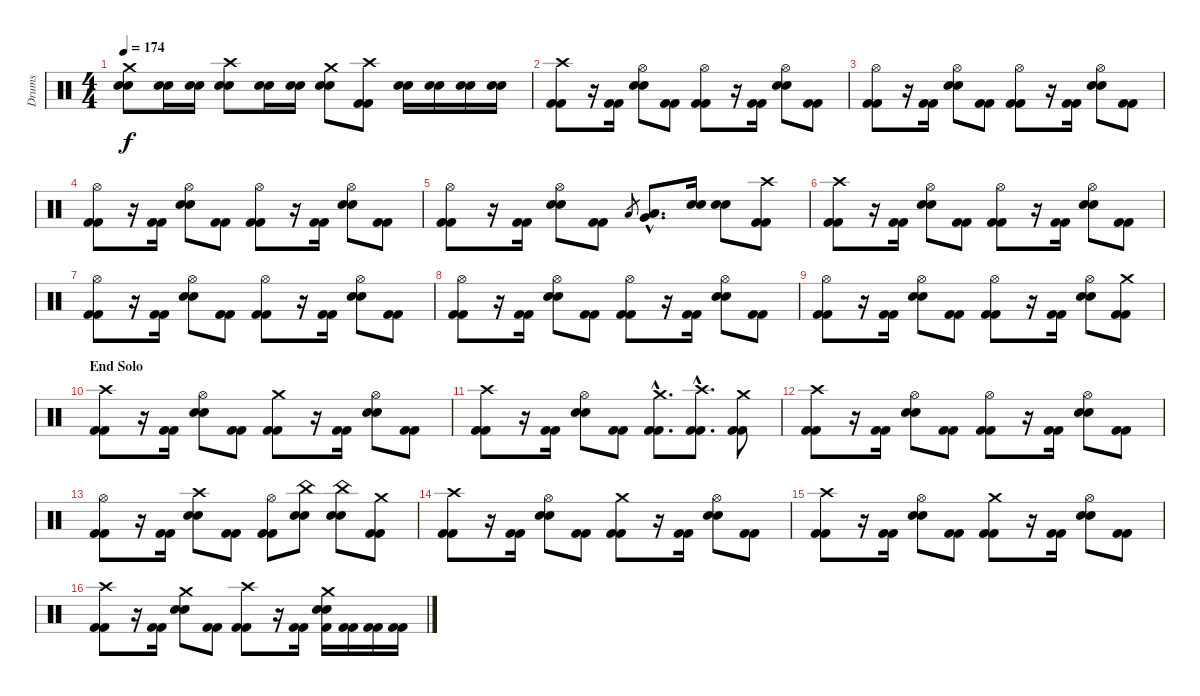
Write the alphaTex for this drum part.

\track ("Drums" "Drums") {instrument percussion}
\staff {score}
\articulation defaults
\ts (4 4)
\tempo 174
\clef neutral
\ks c
("Crash medium (hit)" "Snare (hit) 2" "Snare (hit) 2").8{dy f} ("Snare (hit) 2" "Snare (hit) 2").16 ("Snare (hit) 2" "Snare (hit) 2").16 ("Crash high (hit)" "Snare (hit) 2" "Snare (hit) 2").8 ("Snare (hit) 2" "Snare (hit) 2").16 ("Snare (hit) 2" "Snare (hit) 2").16 ("Crash medium (hit)" "Snare (hit) 2" "Snare (hit) 2").8 ("Crash high (hit)" "Kick (hit) 2" "Kick (hit) 2").8 ("Snare (hit) 2" "Snare (hit) 2").16 ("Snare (hit) 2" "Snare (hit) 2").16 ("Snare (hit) 2" "Snare (hit) 2").16 ("Snare (hit) 2" "Snare (hit) 2").16 |
("Crash high (hit)" "Kick (hit) 2" "Kick (hit) 2").8 r.16 ("Kick (hit) 2" "Kick (hit) 2").16 ("Hi-Hat (open)" "Snare (hit) 2" "Snare (hit) 2").8 ("Kick (hit) 2" "Kick (hit) 2").8 ("Hi-Hat (open)" "Kick (hit) 2" "Kick (hit) 2").8 r.16 ("Kick (hit) 2" "Kick (hit) 2").16 ("Hi-Hat (open)" "Snare (hit) 2" "Snare (hit) 2").8 ("Kick (hit) 2" "Kick (hit) 2").8 |
("Hi-Hat (open)" "Kick (hit) 2" "Kick (hit) 2").8 r.16 ("Kick (hit) 2" "Kick (hit) 2").16 ("Hi-Hat (open)" "Snare (hit) 2" "Snare (hit) 2").8 ("Kick (hit) 2" "Kick (hit) 2").8 ("Hi-Hat (open)" "Kick (hit) 2" "Kick (hit) 2").8 r.16 ("Kick (hit) 2" "Kick (hit) 2").16 ("Hi-Hat (open)" "Snare (hit) 2" "Snare (hit) 2").8 ("Kick (hit) 2" "Kick (hit) 2").8 |
("Hi-Hat (open)" "Kick (hit) 2" "Kick (hit) 2").8 r.16 ("Kick (hit) 2" "Kick (hit) 2").16 ("Hi-Hat (open)" "Snare (hit) 2" "Snare (hit) 2").8 ("Kick (hit) 2" "Kick (hit) 2").8 ("Hi-Hat (open)" "Kick (hit) 2" "Kick (hit) 2").8 r.16 ("Kick (hit) 2" "Kick (hit) 2").16 ("Hi-Hat (open)" "Snare (hit) 2" "Snare (hit) 2").8 ("Kick (hit) 2" "Kick (hit) 2").8 |
("Hi-Hat (open)" "Kick (hit) 2" "Kick (hit) 2").8 r.16 ("Kick (hit) 2" "Kick (hit) 2").16 ("Hi-Hat (open)" "Snare (hit) 2" "Snare (hit) 2").8 ("Kick (hit) 2" "Kick (hit) 2").8 "Low Tom (hit)".8{gr} ("Low Tom (hit)"{hac} "Very Low Tom (hit)"{hac}).8{d} ("Snare (hit) 2" "Snare (hit) 2").16 ("Snare (hit) 2" "Snare (hit) 2").8 ("Crash high (hit)" "Kick (hit) 2" "Kick (hit) 2").8 |
("Crash high (hit)" "Kick (hit) 2" "Kick (hit) 2").8 r.16 ("Kick (hit) 2" "Kick (hit) 2").16 ("Hi-Hat (open)" "Snare (hit) 2" "Snare (hit) 2").8 ("Kick (hit) 2" "Kick (hit) 2").8 ("Hi-Hat (open)" "Kick (hit) 2" "Kick (hit) 2").8 r.16 ("Kick (hit) 2" "Kick (hit) 2").16 ("Hi-Hat (open)" "Snare (hit) 2" "Snare (hit) 2").8 ("Kick (hit) 2" "Kick (hit) 2").8 |
("Hi-Hat (open)" "Kick (hit) 2" "Kick (hit) 2").8 r.16 ("Kick (hit) 2" "Kick (hit) 2").16 ("Hi-Hat (open)" "Snare (hit) 2" "Snare (hit) 2").8 ("Kick (hit) 2" "Kick (hit) 2").8 ("Hi-Hat (open)" "Kick (hit) 2" "Kick (hit) 2").8 r.16 ("Kick (hit) 2" "Kick (hit) 2").16 ("Hi-Hat (open)" "Snare (hit) 2" "Snare (hit) 2").8 ("Kick (hit) 2" "Kick (hit) 2").8 |
("Hi-Hat (open)" "Kick (hit) 2" "Kick (hit) 2").8 r.16 ("Kick (hit) 2" "Kick (hit) 2").16 ("Hi-Hat (open)" "Snare (hit) 2" "Snare (hit) 2").8 ("Kick (hit) 2" "Kick (hit) 2").8 ("Hi-Hat (open)" "Kick (hit) 2" "Kick (hit) 2").8 r.16 ("Kick (hit) 2" "Kick (hit) 2").16 ("Hi-Hat (open)" "Snare (hit) 2" "Snare (hit) 2").8 ("Kick (hit) 2" "Kick (hit) 2").8 |
("Hi-Hat (open)" "Kick (hit) 2" "Kick (hit) 2").8 r.16 ("Kick (hit) 2" "Kick (hit) 2").16 ("Hi-Hat (open)" "Snare (hit) 2" "Snare (hit) 2").8 ("Kick (hit) 2" "Kick (hit) 2").8 ("Hi-Hat (open)" "Kick (hit) 2" "Kick (hit) 2").8 r.16 ("Kick (hit) 2" "Kick (hit) 2").16 ("Hi-Hat (open)" "Snare (hit) 2" "Snare (hit) 2").8 ("Crash medium (hit)" "Kick (hit) 2" "Kick (hit) 2").8 |
\section ("" "End Solo")
("Crash high (hit)" "Kick (hit) 2" "Kick (hit) 2").8 r.16 ("Kick (hit) 2" "Kick (hit) 2").16 ("Hi-Hat (open)" "Snare (hit) 2" "Snare (hit) 2").8 ("Kick (hit) 2" "Kick (hit) 2").8 ("Crash medium (hit)" "Kick (hit) 2" "Kick (hit) 2").8 r.16 ("Kick (hit) 2" "Kick (hit) 2").16 ("Hi-Hat (open)" "Snare (hit) 2" "Snare (hit) 2").8 ("Kick (hit) 2" "Kick (hit) 2").8 |
("Crash high (hit)" "Kick (hit) 2" "Kick (hit) 2").8 r.16 ("Kick (hit) 2" "Kick (hit) 2").16 ("Hi-Hat (open)" "Snare (hit) 2" "Snare (hit) 2").8 ("Kick (hit) 2" "Kick (hit) 2").8 ("Crash medium (hit)"{hac} "Kick (hit) 2"{hac} "Kick (hit) 2"{hac}).8{d} ("Crash high (hit)"{hac} "Kick (hit) 2"{hac} "Kick (hit) 2"{hac}).8{d} ("Crash medium (hit)" "Kick (hit) 2" "Kick (hit) 2").8 |
("Crash high (hit)" "Kick (hit) 2" "Kick (hit) 2").8 r.16 ("Kick (hit) 2" "Kick (hit) 2").16 ("Hi-Hat (open)" "Snare (hit) 2" "Snare (hit) 2").8 ("Kick (hit) 2" "Kick (hit) 2").8 ("Hi-Hat (open)" "Kick (hit) 2" "Kick (hit) 2").8 r.16 ("Kick (hit) 2" "Kick (hit) 2").16 ("Hi-Hat (open)" "Snare (hit) 2" "Snare (hit) 2").8 ("Kick (hit) 2" "Kick (hit) 2").8 |
("Hi-Hat (open)" "Kick (hit) 2" "Kick (hit) 2").8 r.16 ("Kick (hit) 2" "Kick (hit) 2").16 ("Crash high (hit)" "Snare (hit) 2" "Snare (hit) 2").8 ("Kick (hit) 2" "Kick (hit) 2").8 ("Hi-Hat (open)" "Kick (hit) 2" "Kick (hit) 2").8 ("China (hit)" "Snare (hit) 2" "Snare (hit) 2").8 ("China (hit)" "Snare (hit) 2" "Snare (hit) 2").8 ("Crash medium (hit)" "Kick (hit) 2" "Kick (hit) 2").8 |
("Crash high (hit)" "Kick (hit) 2" "Kick (hit) 2").8 r.16 ("Kick (hit) 2" "Kick (hit) 2").16 ("Hi-Hat (open)" "Snare (hit) 2" "Snare (hit) 2").8 ("Kick (hit) 2" "Kick (hit) 2").8 ("Crash medium (hit)" "Kick (hit) 2" "Kick (hit) 2").8 r.16 ("Kick (hit) 2" "Kick (hit) 2").16 ("Hi-Hat (open)" "Snare (hit) 2" "Snare (hit) 2").8 ("Kick (hit) 2" "Kick (hit) 2").8 |
("Crash high (hit)" "Kick (hit) 2" "Kick (hit) 2").8 r.16 ("Kick (hit) 2" "Kick (hit) 2").16 ("Hi-Hat (open)" "Snare (hit) 2" "Snare (hit) 2").8 ("Kick (hit) 2" "Kick (hit) 2").8 ("Crash medium (hit)" "Kick (hit) 2" "Kick (hit) 2").8 r.16 ("Kick (hit) 2" "Kick (hit) 2").16 ("Hi-Hat (open)" "Snare (hit) 2" "Snare (hit) 2").8 ("Kick (hit) 2" "Kick (hit) 2").8 |
("Crash high (hit)" "Kick (hit) 2" "Kick (hit) 2").8 r.16 ("Kick (hit) 2" "Kick (hit) 2").16 ("Crash medium (hit)" "Snare (hit) 2" "Snare (hit) 2").8 ("Kick (hit) 2" "Kick (hit) 2").8 ("Crash high (hit)" "Kick (hit) 2" "Kick (hit) 2").8 r.16 ("Kick (hit) 2" "Kick (hit) 2").16 ("Crash medium (hit)" "Snare (hit) 2" "Snare (hit) 2" "Kick (hit) 2").16 ("Kick (hit) 2" "Kick (hit) 2").16 ("Kick (hit) 2" "Kick (hit) 2").16 ("Kick (hit) 2" "Kick (hit) 2").16
